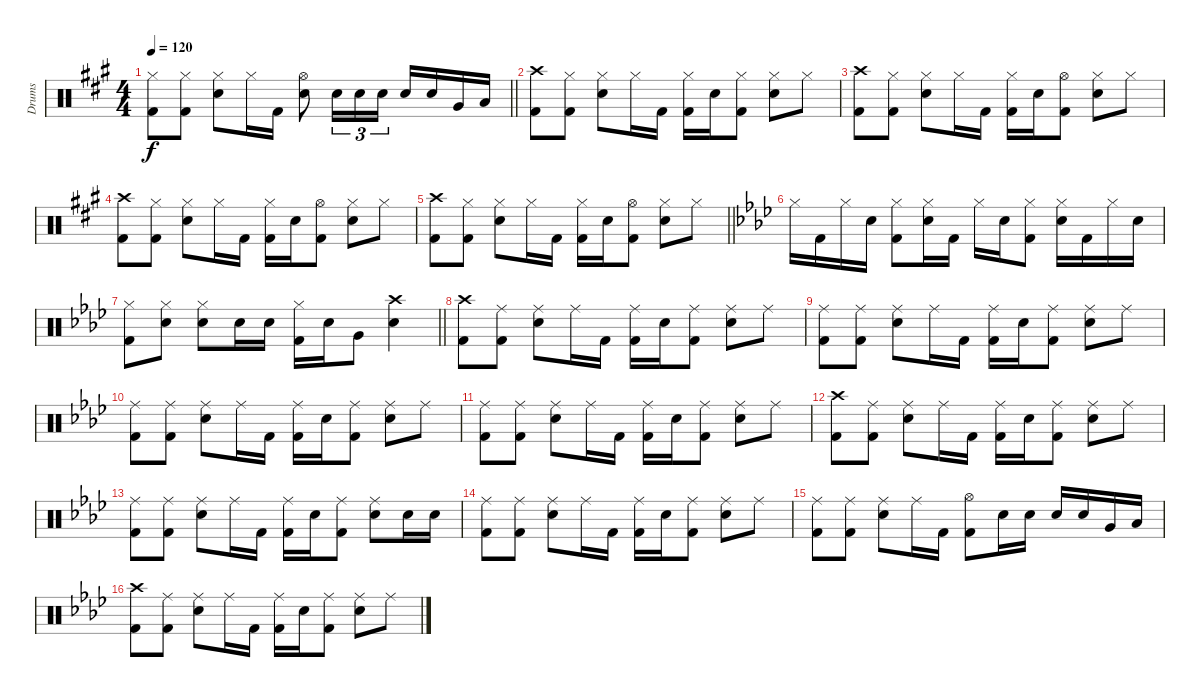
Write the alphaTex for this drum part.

\track ("Drums" "Drums") {instrument percussion}
\staff {score}
\articulation defaults
\ts (4 4)
\tempo 120
\clef neutral
\barLineRight lightlight
\ks a
("Hi-Hat (closed)" "Kick (hit) 2").8{dy f} ("Hi-Hat (closed)" "Kick (hit) 2").8 ("Hi-Hat (closed)" "Electric Snare (hit)").8 "Hi-Hat (closed)".16 "Kick (hit) 2".16 ("Hi-Hat (open)" "Electric Snare (hit)").8 "Electric Snare (hit)".16{tu (3 2)} "Electric Snare (hit)".16{tu (3 2)} "Electric Snare (hit)".16{tu (3 2)} "Electric Snare (hit)".16 "Electric Snare (hit)".16 "Very Low Tom (hit)".16 "Low Floor Tom (hit)".16 |
("Crash high (hit)" "Kick (hit) 2").8 ("Hi-Hat (closed)" "Kick (hit) 2").8 ("Hi-Hat (closed)" "Electric Snare (hit)").8 "Hi-Hat (closed)".16 "Kick (hit) 2".16 ("Hi-Hat (closed)" "Kick (hit) 2").16 "Electric Snare (hit)".16 ("Hi-Hat (closed)" "Kick (hit) 2").8 ("Hi-Hat (closed)" "Electric Snare (hit)").8 "Hi-Hat (closed)".8 |
("Crash high (hit)" "Kick (hit) 2").8 ("Hi-Hat (closed)" "Kick (hit) 2").8 ("Hi-Hat (closed)" "Electric Snare (hit)").8 "Hi-Hat (closed)".16 "Kick (hit) 2".16 ("Hi-Hat (closed)" "Kick (hit) 2").16 "Electric Snare (hit)".16 ("Hi-Hat (open)" "Kick (hit) 2").8 ("Hi-Hat (closed)" "Electric Snare (hit)").8 "Hi-Hat (closed)".8 |
("Crash high (hit)" "Kick (hit) 2").8 ("Hi-Hat (closed)" "Kick (hit) 2").8 ("Hi-Hat (closed)" "Electric Snare (hit)").8 "Hi-Hat (closed)".16 "Kick (hit) 2".16 ("Hi-Hat (closed)" "Kick (hit) 2").16 "Electric Snare (hit)".16 ("Hi-Hat (open)" "Kick (hit) 2").8 ("Hi-Hat (closed)" "Electric Snare (hit)").8 "Hi-Hat (closed)".8 |
\barLineRight lightlight
("Crash high (hit)" "Kick (hit) 2").8 ("Hi-Hat (closed)" "Kick (hit) 2").8 ("Hi-Hat (closed)" "Electric Snare (hit)").8 "Hi-Hat (closed)".16 "Kick (hit) 2".16 ("Hi-Hat (closed)" "Kick (hit) 2").16 "Electric Snare (hit)".16 ("Hi-Hat (open)" "Kick (hit) 2").8 ("Hi-Hat (closed)" "Electric Snare (hit)").8 "Hi-Hat (closed)".8 |
\ks ab "Hi-Hat (closed)".16 "Kick (hit) 2".16 "Hi-Hat (closed)".16 "Electric Snare (hit)".16
("Hi-Hat (closed)" "Kick (hit) 2").8 ("Hi-Hat (closed)" "Electric Snare (hit)").16 "Kick (hit) 2".16 "Hi-Hat (closed)".16 "Electric Snare (hit)".16 ("Hi-Hat (closed)" "Kick (hit) 2").8 ("Hi-Hat (closed)" "Electric Snare (hit)").16 "Kick (hit) 2".16 "Hi-Hat (closed)".16 "Electric Snare (hit)".16 |
\barLineRight lightlight
("Hi-Hat (closed)" "Kick (hit) 2").8 ("Hi-Hat (closed)" "Electric Snare (hit)").8 ("Hi-Hat (closed)" "Electric Snare (hit)").8 "Electric Snare (hit)".16 "Electric Snare (hit)".16 ("Hi-Hat (closed)" "Kick (hit) 2").16 "Electric Snare (hit)".16 "Very Low Tom (hit)".8 ("Crash high (hit)" "Electric Snare (hit)").4 |
("Crash high (hit)" "Kick (hit) 2").8 ("Ride (middle)" "Kick (hit) 2").8 ("Ride (middle)" "Electric Snare (hit)").8 "Ride (middle)".16 "Kick (hit) 2".16 ("Ride (middle)" "Kick (hit) 2").16 "Electric Snare (hit)".16 ("Ride (middle)" "Kick (hit) 2").8 ("Ride (middle)" "Electric Snare (hit)").8 "Ride (middle)".8 |
("Ride (middle)" "Kick (hit) 2").8 ("Ride (middle)" "Kick (hit) 2").8 ("Ride (middle)" "Electric Snare (hit)").8 "Ride (middle)".16 "Kick (hit) 2".16 ("Ride (middle)" "Kick (hit) 2").16 "Electric Snare (hit)".16 ("Ride (middle)" "Kick (hit) 2").8 ("Ride (middle)" "Electric Snare (hit)").8 "Ride (middle)".8 |
("Ride (middle)" "Kick (hit) 2").8 ("Ride (middle)" "Kick (hit) 2").8 ("Ride (middle)" "Electric Snare (hit)").8 "Ride (middle)".16 "Kick (hit) 2".16 ("Ride (middle)" "Kick (hit) 2").16 "Electric Snare (hit)".16 ("Ride (middle)" "Kick (hit) 2").8 ("Ride (middle)" "Electric Snare (hit)").8 "Ride (middle)".8 |
("Ride (middle)" "Kick (hit) 2").8 ("Ride (middle)" "Kick (hit) 2").8 ("Ride (middle)" "Electric Snare (hit)").8 "Ride (middle)".16 "Kick (hit) 2".16 ("Ride (middle)" "Kick (hit) 2").16 "Electric Snare (hit)".16 ("Ride (middle)" "Kick (hit) 2").8 ("Ride (middle)" "Electric Snare (hit)").8 "Ride (middle)".8 |
("Crash high (hit)" "Kick (hit) 2").8 ("Ride (middle)" "Kick (hit) 2").8 ("Ride (middle)" "Electric Snare (hit)").8 "Ride (middle)".16 "Kick (hit) 2".16 ("Ride (middle)" "Kick (hit) 2").16 "Electric Snare (hit)".16 ("Ride (middle)" "Kick (hit) 2").8 ("Ride (middle)" "Electric Snare (hit)").8 "Ride (middle)".8 |
("Ride (middle)" "Kick (hit) 2").8 ("Ride (middle)" "Kick (hit) 2").8 ("Ride (middle)" "Electric Snare (hit)").8 "Ride (middle)".16 "Kick (hit) 2".16 ("Ride (middle)" "Kick (hit) 2").16 "Electric Snare (hit)".16 ("Ride (middle)" "Kick (hit) 2").8 ("Ride (middle)" "Electric Snare (hit)").8 "Electric Snare (hit)".16 "Electric Snare (hit)".16 |
("Ride (middle)" "Kick (hit) 2").8 ("Ride (middle)" "Kick (hit) 2").8 ("Ride (middle)" "Electric Snare (hit)").8 "Ride (middle)".16 "Kick (hit) 2".16 ("Ride (middle)" "Kick (hit) 2").16 "Electric Snare (hit)".16 ("Ride (middle)" "Kick (hit) 2").8 ("Ride (middle)" "Electric Snare (hit)").8 "Ride (middle)".8 |
("Ride (middle)" "Kick (hit) 2").8 ("Ride (middle)" "Kick (hit) 2").8 ("Ride (middle)" "Electric Snare (hit)").8 "Ride (middle)".16 "Kick (hit) 2".16 ("Hi-Hat (open)" "Kick (hit) 2").8 "Electric Snare (hit)".16 "Electric Snare (hit)".16 "Electric Snare (hit)".16 "Electric Snare (hit)".16 "Very Low Tom (hit)".16 "Low Floor Tom (hit)".16 |
("Crash high (hit)" "Kick (hit) 2").8 ("Ride (middle)" "Kick (hit) 2").8 ("Ride (middle)" "Electric Snare (hit)").8 "Ride (middle)".16 "Kick (hit) 2".16 ("Ride (middle)" "Kick (hit) 2").16 "Electric Snare (hit)".16 ("Ride (middle)" "Kick (hit) 2").8 ("Ride (middle)" "Electric Snare (hit)").8 "Ride (middle)".8
